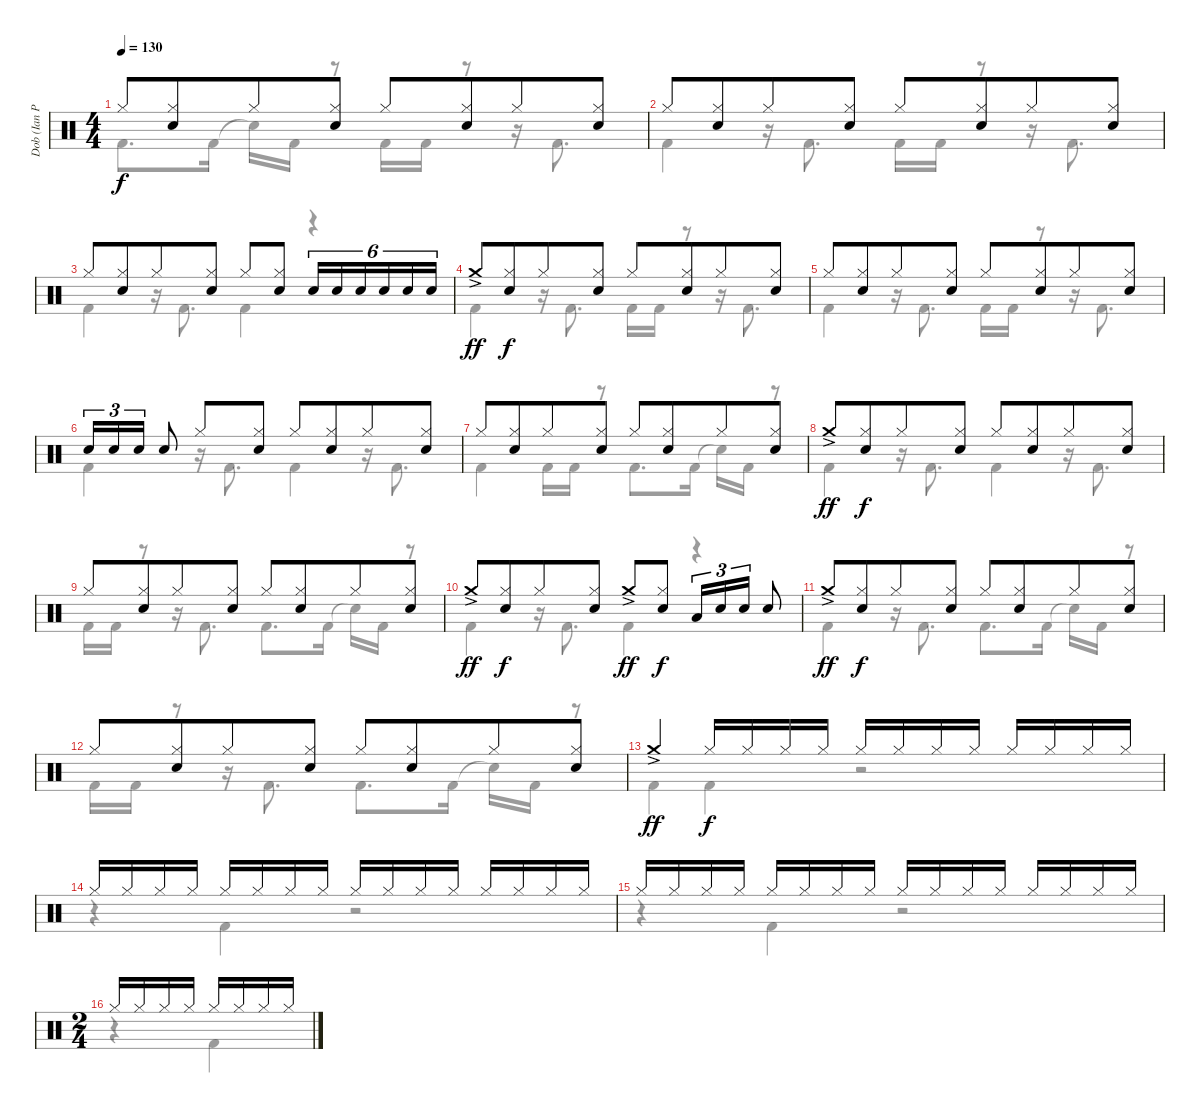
\track ("Dob (Ian Paice)" "Dob (Ian P") {instrument percussion}
\staff {score}
\articulation defaults
\voice
\ts (4 4)
\tempo 130
\clef neutral
\ks c "Hi-Hat (closed)".8{dy f}
("Hi-Hat (closed)" "Electric Snare (hit)").8{beam merge} "Hi-Hat (closed)".8 ("Hi-Hat (closed)" "Electric Snare (hit)").8 "Hi-Hat (closed)".8 ("Hi-Hat (closed)" "Electric Snare (hit)").8{beam merge} "Hi-Hat (closed)".8 ("Hi-Hat (closed)" "Electric Snare (hit)").8 |
"Hi-Hat (closed)".8 ("Hi-Hat (closed)" "Electric Snare (hit)").8{beam merge} "Hi-Hat (closed)".8 ("Hi-Hat (closed)" "Electric Snare (hit)").8 "Hi-Hat (closed)".8 ("Hi-Hat (closed)" "Electric Snare (hit)").8{beam merge} "Hi-Hat (closed)".8 ("Hi-Hat (closed)" "Electric Snare (hit)").8 |
"Hi-Hat (closed)".8 ("Hi-Hat (closed)" "Electric Snare (hit)").8{beam merge} "Hi-Hat (closed)".8 ("Hi-Hat (closed)" "Electric Snare (hit)").8 "Hi-Hat (closed)".8 ("Hi-Hat (closed)" "Electric Snare (hit)").8 "Electric Snare (hit)".16{tu (6 4)} "Electric Snare (hit)".16{tu (6 4)} "Electric Snare (hit)".16{tu (6 4)} "Electric Snare (hit)".16{tu (6 4)} "Electric Snare (hit)".16{tu (6 4)} "Electric Snare (hit)".16{tu (6 4)} |
"Crash medium (hit)"{ac}.8{dy ff} ("Hi-Hat (closed)" "Electric Snare (hit)").8{dy f beam merge} "Hi-Hat (closed)".8 ("Hi-Hat (closed)" "Electric Snare (hit)").8 "Hi-Hat (closed)".8 ("Hi-Hat (closed)" "Electric Snare (hit)").8{beam merge} "Hi-Hat (closed)".8 ("Hi-Hat (closed)" "Electric Snare (hit)").8 |
"Hi-Hat (closed)".8 ("Hi-Hat (closed)" "Electric Snare (hit)").8{beam merge} "Hi-Hat (closed)".8 ("Hi-Hat (closed)" "Electric Snare (hit)").8 "Hi-Hat (closed)".8 ("Hi-Hat (closed)" "Electric Snare (hit)").8{beam merge} "Hi-Hat (closed)".8 ("Hi-Hat (closed)" "Electric Snare (hit)").8 |
"Electric Snare (hit)".16{tu (3 2)} "Electric Snare (hit)".16{tu (3 2)} "Electric Snare (hit)".16{tu (3 2)} "Electric Snare (hit)".8{beam split} "Hi-Hat (closed)".8 ("Hi-Hat (closed)" "Electric Snare (hit)").8 "Hi-Hat (closed)".8 ("Hi-Hat (closed)" "Electric Snare (hit)").8{beam merge} "Hi-Hat (closed)".8 ("Hi-Hat (closed)" "Electric Snare (hit)").8 |
"Hi-Hat (closed)".8 ("Hi-Hat (closed)" "Electric Snare (hit)").8{beam merge} "Hi-Hat (closed)".8 ("Hi-Hat (closed)" "Electric Snare (hit)").8 "Hi-Hat (closed)".8 ("Hi-Hat (closed)" "Electric Snare (hit)").8{beam merge} "Hi-Hat (closed)".8 ("Hi-Hat (closed)" "Electric Snare (hit)").8 |
"Crash medium (hit)"{ac}.8{dy ff} ("Hi-Hat (closed)" "Electric Snare (hit)").8{dy f beam merge} "Hi-Hat (closed)".8 ("Hi-Hat (closed)" "Electric Snare (hit)").8 "Hi-Hat (closed)".8 ("Hi-Hat (closed)" "Electric Snare (hit)").8{beam merge} "Hi-Hat (closed)".8 ("Hi-Hat (closed)" "Electric Snare (hit)").8 |
"Hi-Hat (closed)".8 ("Hi-Hat (closed)" "Electric Snare (hit)").8{beam merge} "Hi-Hat (closed)".8 ("Hi-Hat (closed)" "Electric Snare (hit)").8 "Hi-Hat (closed)".8 ("Hi-Hat (closed)" "Electric Snare (hit)").8{beam merge} "Hi-Hat (closed)".8 ("Hi-Hat (closed)" "Electric Snare (hit)").8 |
"Crash medium (hit)"{ac}.8{dy ff} ("Hi-Hat (closed)" "Electric Snare (hit)").8{dy f beam merge} "Hi-Hat (closed)".8 ("Hi-Hat (closed)" "Electric Snare (hit)").8 "Crash medium (hit)"{ac}.8{dy ff} ("Hi-Hat (closed)" "Electric Snare (hit)").8{dy f} "Low Tom (hit)".16{tu (3 2)} "Electric Snare (hit)".16{tu (3 2)} "Electric Snare (hit)".16{tu (3 2)} "Electric Snare (hit)".8 |
"Crash medium (hit)"{ac}.8{dy ff} ("Hi-Hat (closed)" "Electric Snare (hit)").8{dy f beam merge} "Hi-Hat (closed)".8 ("Hi-Hat (closed)" "Electric Snare (hit)").8 "Hi-Hat (closed)".8 ("Hi-Hat (closed)" "Electric Snare (hit)").8{beam merge} "Hi-Hat (closed)".8 ("Hi-Hat (closed)" "Electric Snare (hit)").8 |
"Hi-Hat (closed)".8 ("Hi-Hat (closed)" "Electric Snare (hit)").8{beam merge} "Hi-Hat (closed)".8 ("Hi-Hat (closed)" "Electric Snare (hit)").8 "Hi-Hat (closed)".8 ("Hi-Hat (closed)" "Electric Snare (hit)").8{beam merge} "Hi-Hat (closed)".8 ("Hi-Hat (closed)" "Electric Snare (hit)").8 |
"Crash medium (hit)"{ac}.4{dy ff} "Hi-Hat (closed)".16{dy f} "Hi-Hat (closed)".16 "Hi-Hat (closed)".16 "Hi-Hat (closed)".16 "Hi-Hat (closed)".16 "Hi-Hat (closed)".16 "Hi-Hat (closed)".16 "Hi-Hat (closed)".16 "Hi-Hat (closed)".16 "Hi-Hat (closed)".16 "Hi-Hat (closed)".16 "Hi-Hat (closed)".16 |
"Hi-Hat (closed)".16 "Hi-Hat (closed)".16 "Hi-Hat (closed)".16 "Hi-Hat (closed)".16 "Hi-Hat (closed)".16 "Hi-Hat (closed)".16 "Hi-Hat (closed)".16 "Hi-Hat (closed)".16 "Hi-Hat (closed)".16 "Hi-Hat (closed)".16 "Hi-Hat (closed)".16 "Hi-Hat (closed)".16 "Hi-Hat (closed)".16 "Hi-Hat (closed)".16 "Hi-Hat (closed)".16 "Hi-Hat (closed)".16 |
"Hi-Hat (closed)".16 "Hi-Hat (closed)".16 "Hi-Hat (closed)".16 "Hi-Hat (closed)".16 "Hi-Hat (closed)".16 "Hi-Hat (closed)".16 "Hi-Hat (closed)".16 "Hi-Hat (closed)".16 "Hi-Hat (closed)".16 "Hi-Hat (closed)".16 "Hi-Hat (closed)".16 "Hi-Hat (closed)".16 "Hi-Hat (closed)".16 "Hi-Hat (closed)".16 "Hi-Hat (closed)".16 "Hi-Hat (closed)".16 |
\ts (2 4)
"Hi-Hat (closed)".16 "Hi-Hat (closed)".16 "Hi-Hat (closed)".16 "Hi-Hat (closed)".16 "Hi-Hat (closed)".16 "Hi-Hat (closed)".16 "Hi-Hat (closed)".16 "Hi-Hat (closed)".16
\voice
\clef neutral
\ottava regular
\simile none
\ks c "Kick (hit) 2".8{d dy f} "Kick (hit) 2".16 "Snare (hit)"{t}.16 "Kick (hit) 2".16
r.8 "Kick (hit) 2".16 "Kick (hit) 2".16 r.8 r.16 "Kick (hit) 2".8{d} |
"Kick (hit) 2".4 r.16 "Kick (hit) 2".8{d} "Kick (hit) 2".16 "Kick (hit) 2".16 r.8 r.16 "Kick (hit) 2".8{d} |
"Kick (hit) 2".4 r.16 "Kick (hit) 2".8{d} "Kick (hit) 2".4 r.4 |
"Kick (hit) 2".4 r.16 "Kick (hit) 2".8{d} "Kick (hit) 2".16 "Kick (hit) 2".16 r.8 r.16 "Kick (hit) 2".8{d} |
"Kick (hit) 2".4 r.16 "Kick (hit) 2".8{d} "Kick (hit) 2".16 "Kick (hit) 2".16 r.8 r.16 "Kick (hit) 2".8{d} |
"Kick (hit) 2".4 r.16 "Kick (hit) 2".8{d} "Kick (hit) 2".4 r.16 "Kick (hit) 2".8{d} |
"Kick (hit) 2".4 "Kick (hit) 2".16 "Kick (hit) 2".16 r.8 "Kick (hit) 2".8{d} "Kick (hit) 2".16 "Snare (hit)"{t}.16 "Kick (hit) 2".16 r.8 |
"Kick (hit) 2".4 r.16 "Kick (hit) 2".8{d} "Kick (hit) 2".4 r.16 "Kick (hit) 2".8{d} |
"Kick (hit) 2".16 "Kick (hit) 2".16 r.8 r.16 "Kick (hit) 2".8{d} "Kick (hit) 2".8{d} "Kick (hit) 2".16 "Snare (hit)"{t}.16 "Kick (hit) 2".16 r.8 |
"Kick (hit) 2".4 r.16 "Kick (hit) 2".8{d} "Kick (hit) 2".4 r.4 |
"Kick (hit) 2".4 r.16 "Kick (hit) 2".8{d} "Kick (hit) 2".8{d} "Kick (hit) 2".16 "Snare (hit)"{t}.16 "Kick (hit) 2".16 r.8 |
"Kick (hit) 2".16 "Kick (hit) 2".16 r.8 r.16 "Kick (hit) 2".8{d} "Kick (hit) 2".8{d} "Kick (hit) 2".16 "Snare (hit)"{t}.16 "Kick (hit) 2".16 r.8 |
"Kick (hit) 2".4 "Kick (hit) 2".4 r.2 |
r.4 "Kick (hit) 2".4 r.2 |
r.4 "Kick (hit) 2".4 r.2 |
r.4 "Kick (hit) 2".4
